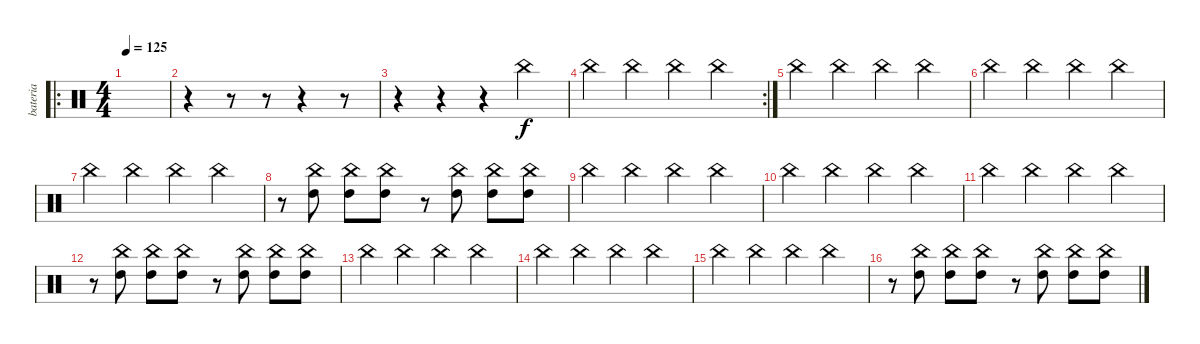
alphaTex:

\track ("bateria" "bateria") {instrument percussion}
\staff {score}
\articulation defaults
\ro
\ts (4 4)
\tempo 125
\clef neutral
\ks c
|
r.4 r.8 r.8 r.4 r.8 |
r.4 r.4 r.4 "China (hit)".4 |
\rc 2 "China (hit)".4 "China (hit)".4 "China (hit)".4 "China (hit)".4
|
"China (hit)".4 "China (hit)".4 "China (hit)".4 "China (hit)".4 |
"China (hit)".4 "China (hit)".4 "China (hit)".4 "China (hit)".4 |
"China (hit)".4 "China (hit)".4 "China (hit)".4 "China (hit)".4 |
r.8 ("China (hit)" "High Tom (hit)").8 ("China (hit)" "High Tom (hit)").8 ("China (hit)" "High Tom (hit)").8 r.8 ("China (hit)" "High Tom (hit)").8 ("China (hit)" "High Tom (hit)").8 ("China (hit)" "High Tom (hit)").8 |
"China (hit)".4 "China (hit)".4 "China (hit)".4 "China (hit)".4 |
"China (hit)".4 "China (hit)".4 "China (hit)".4 "China (hit)".4 |
"China (hit)".4 "China (hit)".4 "China (hit)".4 "China (hit)".4 |
r.8 ("China (hit)" "High Tom (hit)").8 ("China (hit)" "High Tom (hit)").8 ("China (hit)" "High Tom (hit)").8 r.8 ("China (hit)" "High Tom (hit)").8 ("China (hit)" "High Tom (hit)").8 ("China (hit)" "High Tom (hit)").8 |
"China (hit)".4 "China (hit)".4 "China (hit)".4 "China (hit)".4 |
"China (hit)".4 "China (hit)".4 "China (hit)".4 "China (hit)".4 |
"China (hit)".4 "China (hit)".4 "China (hit)".4 "China (hit)".4 |
r.8 ("China (hit)" "High Tom (hit)").8 ("China (hit)" "High Tom (hit)").8 ("China (hit)" "High Tom (hit)").8 r.8 ("China (hit)" "High Tom (hit)").8 ("China (hit)" "High Tom (hit)").8 ("China (hit)" "High Tom (hit)").8
